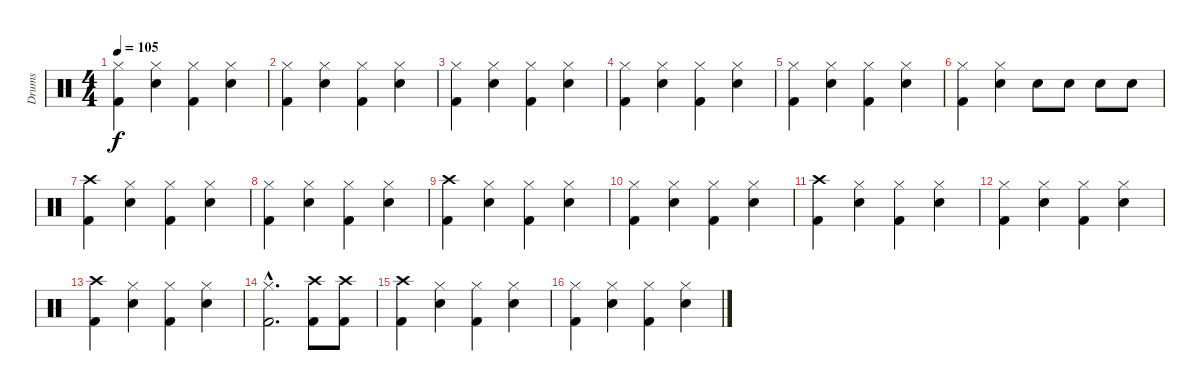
\track ("Drums" "Drums") {instrument percussion}
\staff {score}
\articulation defaults
\ts (4 4)
\tempo 105
\clef neutral
\ks c
("Kick (hit) 2" "Hi-Hat (closed)").4{dy f} ("Snare (hit) 2" "Hi-Hat (closed)").4 ("Kick (hit) 2" "Hi-Hat (closed)").4 ("Snare (hit) 2" "Hi-Hat (closed)").4 |
("Kick (hit) 2" "Hi-Hat (closed)").4 ("Snare (hit) 2" "Hi-Hat (closed)").4 ("Kick (hit) 2" "Hi-Hat (closed)").4 ("Snare (hit) 2" "Hi-Hat (closed)").4 |
("Kick (hit) 2" "Hi-Hat (closed)").4 ("Snare (hit) 2" "Hi-Hat (closed)").4 ("Kick (hit) 2" "Hi-Hat (closed)").4 ("Snare (hit) 2" "Hi-Hat (closed)").4 |
("Kick (hit) 2" "Hi-Hat (closed)").4 ("Snare (hit) 2" "Hi-Hat (closed)").4 ("Kick (hit) 2" "Hi-Hat (closed)").4 ("Snare (hit) 2" "Hi-Hat (closed)").4 |
("Kick (hit) 2" "Hi-Hat (closed)").4 ("Snare (hit) 2" "Hi-Hat (closed)").4 ("Kick (hit) 2" "Hi-Hat (closed)").4 ("Snare (hit) 2" "Hi-Hat (closed)").4 |
("Kick (hit) 2" "Hi-Hat (closed)").4 ("Snare (hit) 2" "Hi-Hat (closed)").4 "Snare (hit) 2".8 "Snare (hit) 2".8 "Snare (hit) 2".8 "Snare (hit) 2".8 |
("Kick (hit) 2" "Crash high (hit)").4 ("Snare (hit) 2" "Hi-Hat (closed)").4 ("Kick (hit) 2" "Hi-Hat (closed)").4 ("Snare (hit) 2" "Hi-Hat (closed)").4 |
("Kick (hit) 2" "Hi-Hat (closed)").4 ("Snare (hit) 2" "Hi-Hat (closed)").4 ("Kick (hit) 2" "Hi-Hat (closed)").4 ("Snare (hit) 2" "Hi-Hat (closed)").4 |
("Kick (hit) 2" "Crash high (hit)").4 ("Snare (hit) 2" "Hi-Hat (closed)").4 ("Kick (hit) 2" "Hi-Hat (closed)").4 ("Snare (hit) 2" "Hi-Hat (closed)").4 |
("Kick (hit) 2" "Hi-Hat (closed)").4 ("Snare (hit) 2" "Hi-Hat (closed)").4 ("Kick (hit) 2" "Hi-Hat (closed)").4 ("Snare (hit) 2" "Hi-Hat (closed)").4 |
("Kick (hit) 2" "Crash high (hit)").4 ("Snare (hit) 2" "Hi-Hat (closed)").4 ("Kick (hit) 2" "Hi-Hat (closed)").4 ("Snare (hit) 2" "Hi-Hat (closed)").4 |
("Kick (hit) 2" "Hi-Hat (closed)").4 ("Snare (hit) 2" "Hi-Hat (closed)").4 ("Kick (hit) 2" "Hi-Hat (closed)").4 ("Snare (hit) 2" "Hi-Hat (closed)").4 |
("Kick (hit) 2" "Crash high (hit)").4 ("Snare (hit) 2" "Hi-Hat (closed)").4 ("Kick (hit) 2" "Hi-Hat (closed)").4 ("Snare (hit) 2" "Hi-Hat (closed)").4 |
("Kick (hit) 2"{hac} "Hi-Hat (closed)"{hac}).2{d} ("Kick (hit) 2" "Crash high (hit)").8 ("Kick (hit) 2" "Crash high (hit)").8 |
("Kick (hit) 2" "Crash high (hit)").4 ("Snare (hit) 2" "Hi-Hat (closed)").4 ("Kick (hit) 2" "Hi-Hat (closed)").4 ("Snare (hit) 2" "Hi-Hat (closed)").4 |
("Kick (hit) 2" "Hi-Hat (closed)").4 ("Snare (hit) 2" "Hi-Hat (closed)").4 ("Kick (hit) 2" "Hi-Hat (closed)").4 ("Snare (hit) 2" "Hi-Hat (closed)").4
